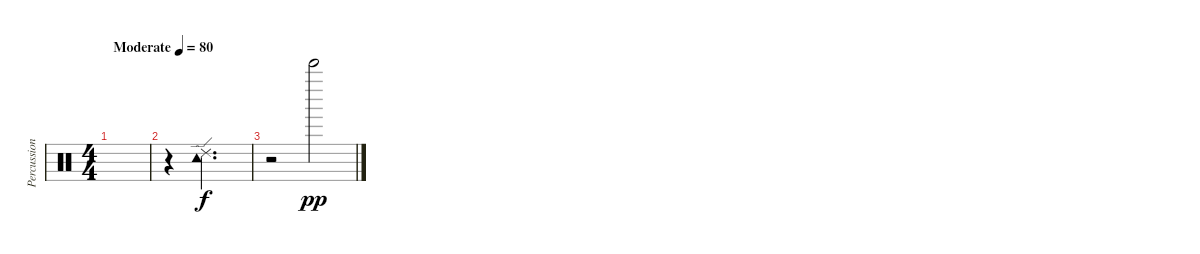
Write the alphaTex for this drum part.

\track ("Percussion" "Percussion") {instrument percussion}
\staff {score}
\articulation defaults
\ts (4 4)
\tempo (80 "Moderate")
\clef neutral
\ks c
|
r.4 ("Ride (edge) 2" "Tambourine (hit)").2{d balance 16} |
r.2 "Bell Tree (hit)".2{dy pp}
